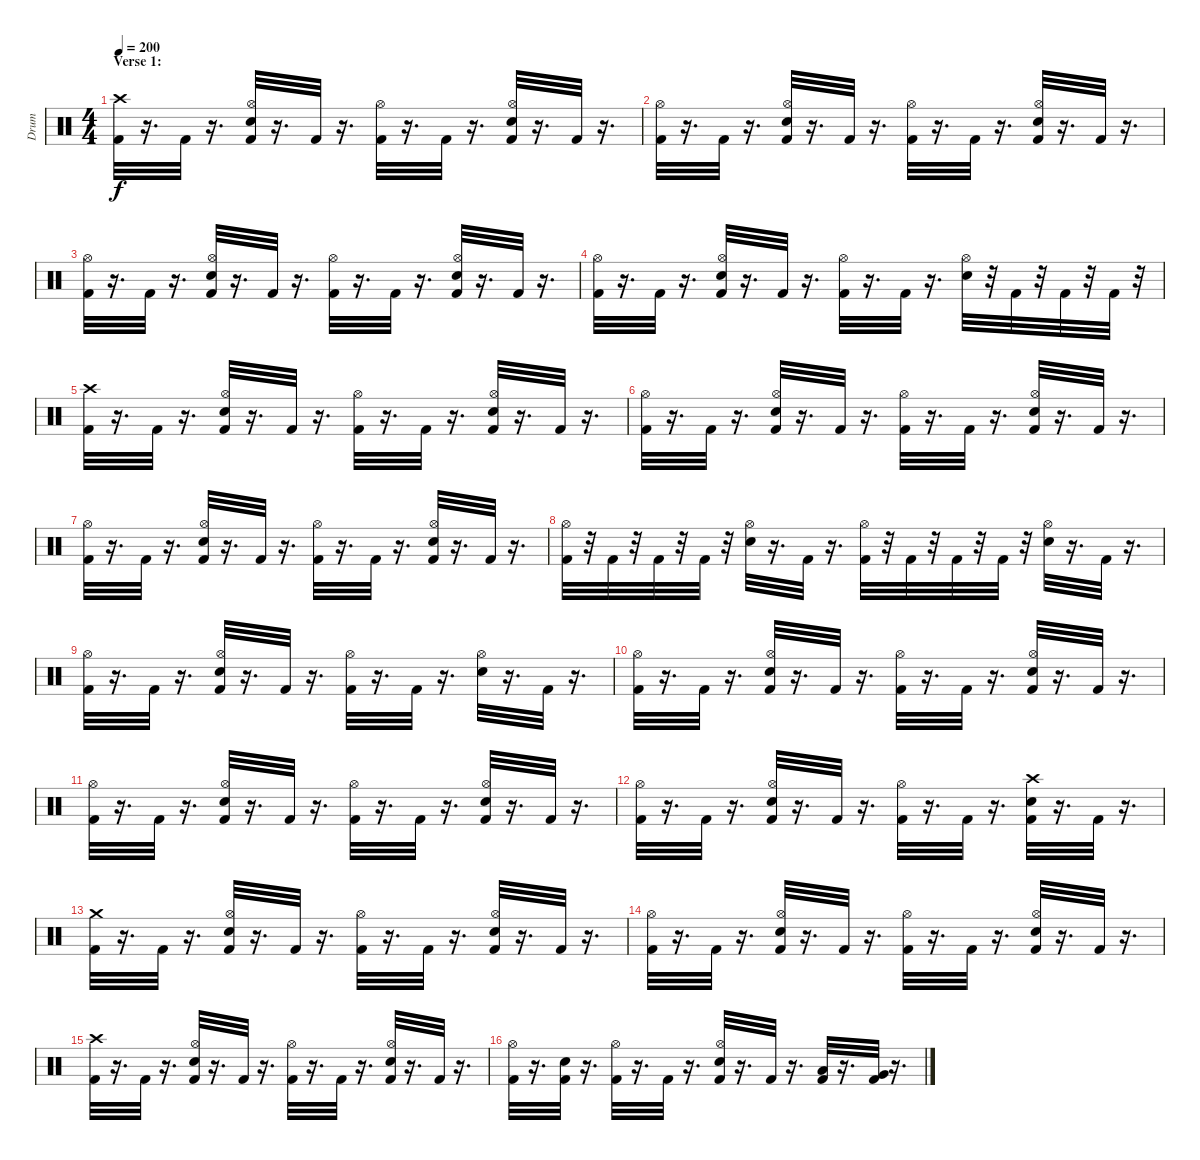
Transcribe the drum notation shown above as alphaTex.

\track ("Drum" "Drum") {instrument percussion}
\staff {score}
\articulation defaults
\ts (4 4)
\section ("" "Verse 1:")
\tempo 200
\clef neutral
\ks c
("Crash high (hit)" "Kick (hit) 2").32{dy f} r.16{d} "Kick (hit) 2".32 r.16{d} ("Hi-Hat (open)" "Snare (hit) 2" "Kick (hit) 2").32 r.16{d} "Kick (hit) 2".32 r.16{d} ("Hi-Hat (open)" "Kick (hit) 2").32 r.16{d} "Kick (hit) 2".32 r.16{d} ("Snare (hit) 2" "Hi-Hat (open)" "Kick (hit) 2").32 r.16{d} "Kick (hit) 2".32 r.16{d} |
("Hi-Hat (open)" "Kick (hit) 2").32 r.16{d} "Kick (hit) 2".32 r.16{d} ("Snare (hit) 2" "Hi-Hat (open)" "Kick (hit) 2").32 r.16{d} "Kick (hit) 2".32 r.16{d} ("Hi-Hat (open)" "Kick (hit) 2").32 r.16{d} "Kick (hit) 2".32 r.16{d} ("Snare (hit) 2" "Hi-Hat (open)" "Kick (hit) 2").32 r.16{d} "Kick (hit) 2".32 r.16{d} |
("Hi-Hat (open)" "Kick (hit) 2").32 r.16{d} "Kick (hit) 2".32 r.16{d} ("Snare (hit) 2" "Hi-Hat (open)" "Kick (hit) 2").32 r.16{d} "Kick (hit) 2".32 r.16{d} ("Hi-Hat (open)" "Kick (hit) 2").32 r.16{d} "Kick (hit) 2".32 r.16{d} ("Snare (hit) 2" "Hi-Hat (open)" "Kick (hit) 2").32 r.16{d} "Kick (hit) 2".32 r.16{d} |
("Hi-Hat (open)" "Kick (hit) 2").32 r.16{d} "Kick (hit) 2".32 r.16{d} ("Snare (hit) 2" "Hi-Hat (open)" "Kick (hit) 2").32 r.16{d} "Kick (hit) 2".32 r.16{d} ("Hi-Hat (open)" "Kick (hit) 2").32 r.16{d} "Kick (hit) 2".32 r.16{d} ("Snare (hit) 2" "Hi-Hat (open)").32 r.32 "Kick (hit) 2".32 r.32 "Kick (hit) 2".32 r.32 "Kick (hit) 2".32 r.32 |
("Crash high (hit)" "Kick (hit) 2").32 r.16{d} "Kick (hit) 2".32 r.16{d} ("Snare (hit) 2" "Hi-Hat (open)" "Kick (hit) 2").32 r.16{d} "Kick (hit) 2".32 r.16{d} ("Hi-Hat (open)" "Kick (hit) 2").32 r.16{d} "Kick (hit) 2".32 r.16{d} ("Snare (hit) 2" "Hi-Hat (open)" "Kick (hit) 2").32 r.16{d} "Kick (hit) 2".32 r.16{d} |
("Hi-Hat (open)" "Kick (hit) 2").32 r.16{d} "Kick (hit) 2".32 r.16{d} ("Snare (hit) 2" "Hi-Hat (open)" "Kick (hit) 2").32 r.16{d} "Kick (hit) 2".32 r.16{d} ("Hi-Hat (open)" "Kick (hit) 2").32 r.16{d} "Kick (hit) 2".32 r.16{d} ("Snare (hit) 2" "Hi-Hat (open)" "Kick (hit) 2").32 r.16{d} "Kick (hit) 2".32 r.16{d} |
("Hi-Hat (open)" "Kick (hit) 2").32 r.16{d} "Kick (hit) 2".32 r.16{d} ("Snare (hit) 2" "Hi-Hat (open)" "Kick (hit) 2").32 r.16{d} "Kick (hit) 2".32 r.16{d} ("Hi-Hat (open)" "Kick (hit) 2").32 r.16{d} "Kick (hit) 2".32 r.16{d} ("Snare (hit) 2" "Hi-Hat (open)" "Kick (hit) 2").32 r.16{d} "Kick (hit) 2".32 r.16{d} |
("Kick (hit) 2" "Hi-Hat (open)").32 r.32 "Kick (hit) 2".32 r.32 "Kick (hit) 2".32 r.32 "Kick (hit) 2".32 r.32 ("Snare (hit) 2" "Hi-Hat (open)").32 r.16{d} "Kick (hit) 2".32 r.16{d} ("Hi-Hat (open)" "Kick (hit) 2").32 r.32 "Kick (hit) 2".32 r.32 "Kick (hit) 2".32 r.32 "Kick (hit) 2".32 r.32 ("Snare (hit) 2" "Hi-Hat (open)").32 r.16{d} "Kick (hit) 2".32 r.16{d} |
("Hi-Hat (open)" "Kick (hit) 2").32 r.16{d} "Kick (hit) 2".32 r.16{d} ("Snare (hit) 2" "Hi-Hat (open)" "Kick (hit) 2").32 r.16{d} "Kick (hit) 2".32 r.16{d} ("Hi-Hat (open)" "Kick (hit) 2").32 r.16{d} "Kick (hit) 2".32 r.16{d} ("Snare (hit) 2" "Hi-Hat (open)").32 r.16{d} "Kick (hit) 2".32 r.16{d} |
("Hi-Hat (open)" "Kick (hit) 2").32 r.16{d} "Kick (hit) 2".32 r.16{d} ("Snare (hit) 2" "Hi-Hat (open)" "Kick (hit) 2").32 r.16{d} "Kick (hit) 2".32 r.16{d} ("Hi-Hat (open)" "Kick (hit) 2").32 r.16{d} "Kick (hit) 2".32 r.16{d} ("Snare (hit) 2" "Hi-Hat (open)" "Kick (hit) 2").32 r.16{d} "Kick (hit) 2".32 r.16{d} |
("Hi-Hat (open)" "Kick (hit) 2").32 r.16{d} "Kick (hit) 2".32 r.16{d} ("Snare (hit) 2" "Hi-Hat (open)" "Kick (hit) 2").32 r.16{d} "Kick (hit) 2".32 r.16{d} ("Hi-Hat (open)" "Kick (hit) 2").32 r.16{d} "Kick (hit) 2".32 r.16{d} ("Snare (hit) 2" "Hi-Hat (open)" "Kick (hit) 2").32 r.16{d} "Kick (hit) 2".32 r.16{d} |
("Hi-Hat (open)" "Kick (hit) 2").32 r.16{d} "Kick (hit) 2".32 r.16{d} ("Snare (hit) 2" "Hi-Hat (open)" "Kick (hit) 2").32 r.16{d} "Kick (hit) 2".32 r.16{d} ("Hi-Hat (open)" "Kick (hit) 2").32 r.16{d} "Kick (hit) 2".32 r.16{d} ("Crash high (hit)" "Snare (hit) 2" "Kick (hit) 2").32 r.16{d} "Kick (hit) 2".32 r.16{d} |
("Crash medium (hit)" "Kick (hit) 2").32 r.16{d} "Kick (hit) 2".32 r.16{d} ("Snare (hit) 2" "Hi-Hat (open)" "Kick (hit) 2").32 r.16{d} "Kick (hit) 2".32 r.16{d} ("Hi-Hat (open)" "Kick (hit) 2").32 r.16{d} "Kick (hit) 2".32 r.16{d} ("Snare (hit) 2" "Hi-Hat (open)" "Kick (hit) 2").32 r.16{d} "Kick (hit) 2".32 r.16{d} |
("Hi-Hat (open)" "Kick (hit) 2").32 r.16{d} "Kick (hit) 2".32 r.16{d} ("Snare (hit) 2" "Hi-Hat (open)" "Kick (hit) 2").32 r.16{d} "Kick (hit) 2".32 r.16{d} ("Hi-Hat (open)" "Kick (hit) 2").32 r.16{d} "Kick (hit) 2".32 r.16{d} ("Snare (hit) 2" "Hi-Hat (open)" "Kick (hit) 2").32 r.16{d} "Kick (hit) 2".32 r.16{d} |
("Crash high (hit)" "Kick (hit) 2").32 r.16{d} "Kick (hit) 2".32 r.16{d} ("Snare (hit) 2" "Hi-Hat (open)" "Kick (hit) 2").32 r.16{d} "Kick (hit) 2".32 r.16{d} ("Hi-Hat (open)" "Kick (hit) 2").32 r.16{d} "Kick (hit) 2".32 r.16{d} ("Snare (hit) 2" "Hi-Hat (open)" "Kick (hit) 2").32 r.16{d} "Kick (hit) 2".32 r.16{d} |
("Hi-Hat (open)" "Kick (hit) 2").32 r.16{d} ("Snare (hit) 2" "Kick (hit) 2").32 r.16{d} ("Hi-Hat (open)" "Kick (hit) 2").32 r.16{d} "Kick (hit) 2".32 r.16{d} ("Snare (hit) 2" "Hi-Hat (open)" "Kick (hit) 2").32 r.16{d} "Kick (hit) 2".32 r.16{d} ("Low Tom (hit)" "Kick (hit) 2").32 r.16{d} ("Very Low Tom (hit)" "Kick (hit) 2").32 r.16{d}
